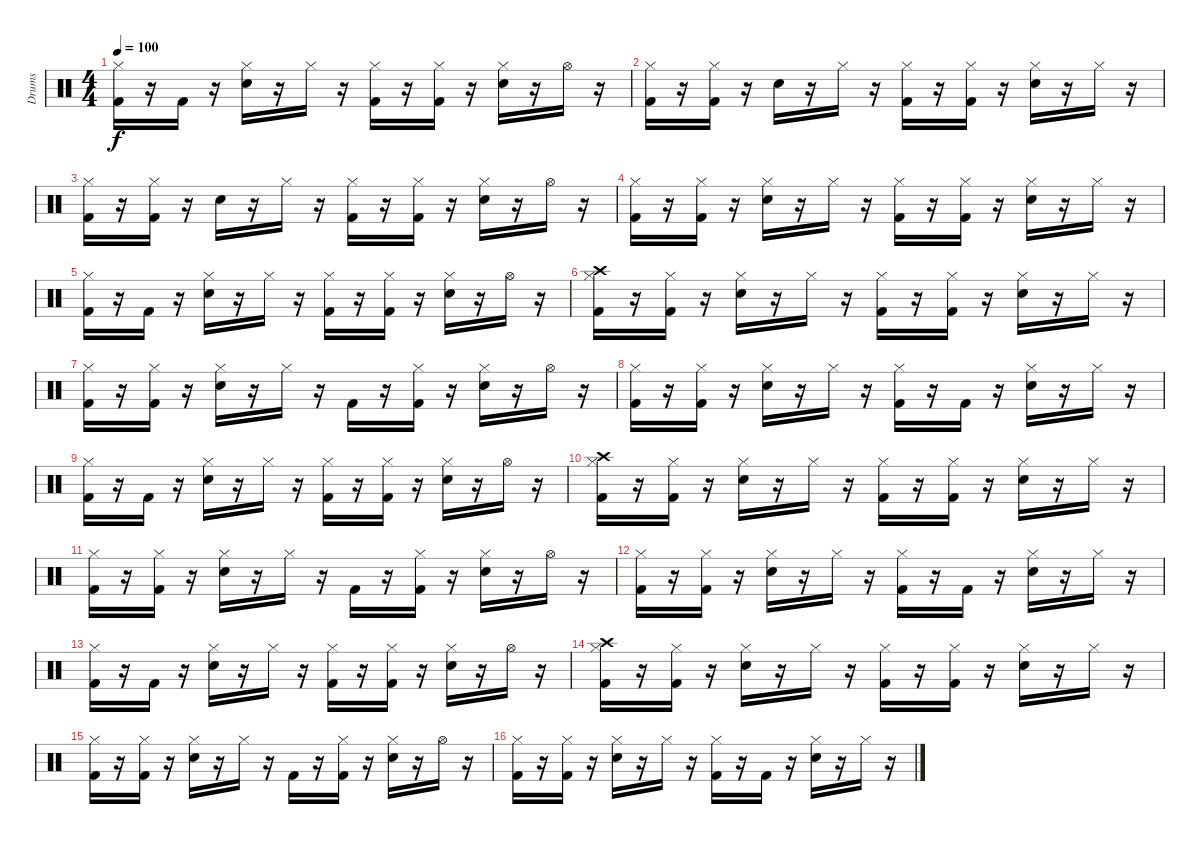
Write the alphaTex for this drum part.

\track ("Drums" "Drums") {instrument percussion}
\staff {score}
\articulation defaults
\ts (4 4)
\tempo 100
\clef neutral
\ks c
("Kick (hit) 2" "Hi-Hat (closed)").16{dy f} r.16 "Kick (hit) 2".16 r.16 ("Snare (hit) 2" "Hi-Hat (closed)").16 r.16 "Hi-Hat (closed)".16 r.16 ("Kick (hit) 2" "Hi-Hat (closed)").16 r.16 ("Kick (hit) 2" "Hi-Hat (closed)").16 r.16 ("Snare (hit) 2" "Hi-Hat (closed)").16 r.16 "Hi-Hat (open)".16 r.16 |
("Kick (hit) 2" "Hi-Hat (closed)").16 r.16 ("Kick (hit) 2" "Hi-Hat (closed)").16 r.16 "Snare (hit) 2".16 r.16 "Hi-Hat (closed)".16 r.16 ("Kick (hit) 2" "Hi-Hat (closed)").16 r.16 ("Kick (hit) 2" "Hi-Hat (closed)").16 r.16 ("Snare (hit) 2" "Hi-Hat (closed)").16 r.16 "Hi-Hat (closed)".16 r.16 |
("Kick (hit) 2" "Hi-Hat (closed)").16 r.16 ("Kick (hit) 2" "Hi-Hat (closed)").16 r.16 "Snare (hit) 2".16 r.16 "Hi-Hat (closed)".16 r.16 ("Kick (hit) 2" "Hi-Hat (closed)").16 r.16 ("Kick (hit) 2" "Hi-Hat (closed)").16 r.16 ("Snare (hit) 2" "Hi-Hat (closed)").16 r.16 "Hi-Hat (open)".16 r.16 |
("Kick (hit) 2" "Hi-Hat (closed)").16 r.16 ("Kick (hit) 2" "Hi-Hat (closed)").16 r.16 ("Snare (hit) 2" "Hi-Hat (closed)").16 r.16 "Hi-Hat (closed)".16 r.16 ("Kick (hit) 2" "Hi-Hat (closed)").16 r.16 ("Kick (hit) 2" "Hi-Hat (closed)").16 r.16 ("Snare (hit) 2" "Hi-Hat (closed)").16 r.16 "Hi-Hat (closed)".16 r.16 |
("Kick (hit) 2" "Hi-Hat (closed)").16 r.16 "Kick (hit) 2".16 r.16 ("Snare (hit) 2" "Hi-Hat (closed)").16 r.16 "Hi-Hat (closed)".16 r.16 ("Kick (hit) 2" "Hi-Hat (closed)").16 r.16 ("Kick (hit) 2" "Hi-Hat (closed)").16 r.16 ("Snare (hit) 2" "Hi-Hat (closed)").16 r.16 "Hi-Hat (open)".16 r.16 |
("Kick (hit) 2" "Hi-Hat (closed)" "Crash high (hit)").16 r.16 ("Kick (hit) 2" "Hi-Hat (closed)").16 r.16 ("Snare (hit) 2" "Hi-Hat (closed)").16 r.16 "Hi-Hat (closed)".16 r.16 ("Kick (hit) 2" "Hi-Hat (closed)").16 r.16 ("Kick (hit) 2" "Hi-Hat (closed)").16 r.16 ("Snare (hit) 2" "Hi-Hat (closed)").16 r.16 "Hi-Hat (closed)".16 r.16 |
("Kick (hit) 2" "Hi-Hat (closed)").16 r.16 ("Kick (hit) 2" "Hi-Hat (closed)").16 r.16 ("Snare (hit) 2" "Hi-Hat (closed)").16 r.16 "Hi-Hat (closed)".16 r.16 "Kick (hit) 2".16 r.16 ("Kick (hit) 2" "Hi-Hat (closed)").16 r.16 ("Snare (hit) 2" "Hi-Hat (closed)").16 r.16 "Hi-Hat (open)".16 r.16 |
("Kick (hit) 2" "Hi-Hat (closed)").16 r.16 ("Kick (hit) 2" "Hi-Hat (closed)").16 r.16 ("Snare (hit) 2" "Hi-Hat (closed)").16 r.16 "Hi-Hat (closed)".16 r.16 ("Kick (hit) 2" "Hi-Hat (closed)").16 r.16 "Kick (hit) 2".16 r.16 ("Snare (hit) 2" "Hi-Hat (closed)").16 r.16 "Hi-Hat (closed)".16 r.16 |
("Kick (hit) 2" "Hi-Hat (closed)").16 r.16 "Kick (hit) 2".16 r.16 ("Snare (hit) 2" "Hi-Hat (closed)").16 r.16 "Hi-Hat (closed)".16 r.16 ("Kick (hit) 2" "Hi-Hat (closed)").16 r.16 ("Kick (hit) 2" "Hi-Hat (closed)").16 r.16 ("Snare (hit) 2" "Hi-Hat (closed)").16 r.16 "Hi-Hat (open)".16 r.16 |
("Kick (hit) 2" "Hi-Hat (closed)" "Crash high (hit)").16 r.16 ("Kick (hit) 2" "Hi-Hat (closed)").16 r.16 ("Snare (hit) 2" "Hi-Hat (closed)").16 r.16 "Hi-Hat (closed)".16 r.16 ("Kick (hit) 2" "Hi-Hat (closed)").16 r.16 ("Kick (hit) 2" "Hi-Hat (closed)").16 r.16 ("Snare (hit) 2" "Hi-Hat (closed)").16 r.16 "Hi-Hat (closed)".16 r.16 |
("Kick (hit) 2" "Hi-Hat (closed)").16 r.16 ("Kick (hit) 2" "Hi-Hat (closed)").16 r.16 ("Snare (hit) 2" "Hi-Hat (closed)").16 r.16 "Hi-Hat (closed)".16 r.16 "Kick (hit) 2".16 r.16 ("Kick (hit) 2" "Hi-Hat (closed)").16 r.16 ("Snare (hit) 2" "Hi-Hat (closed)").16 r.16 "Hi-Hat (open)".16 r.16 |
("Kick (hit) 2" "Hi-Hat (closed)").16 r.16 ("Kick (hit) 2" "Hi-Hat (closed)").16 r.16 ("Snare (hit) 2" "Hi-Hat (closed)").16 r.16 "Hi-Hat (closed)".16 r.16 ("Kick (hit) 2" "Hi-Hat (closed)").16 r.16 "Kick (hit) 2".16 r.16 ("Snare (hit) 2" "Hi-Hat (closed)").16 r.16 "Hi-Hat (closed)".16 r.16 |
("Kick (hit) 2" "Hi-Hat (closed)").16 r.16 "Kick (hit) 2".16 r.16 ("Snare (hit) 2" "Hi-Hat (closed)").16 r.16 "Hi-Hat (closed)".16 r.16 ("Kick (hit) 2" "Hi-Hat (closed)").16 r.16 ("Kick (hit) 2" "Hi-Hat (closed)").16 r.16 ("Snare (hit) 2" "Hi-Hat (closed)").16 r.16 "Hi-Hat (open)".16 r.16 |
("Kick (hit) 2" "Hi-Hat (closed)" "Crash high (hit)").16 r.16 ("Kick (hit) 2" "Hi-Hat (closed)").16 r.16 ("Snare (hit) 2" "Hi-Hat (closed)").16 r.16 "Hi-Hat (closed)".16 r.16 ("Kick (hit) 2" "Hi-Hat (closed)").16 r.16 ("Kick (hit) 2" "Hi-Hat (closed)").16 r.16 ("Snare (hit) 2" "Hi-Hat (closed)").16 r.16 "Hi-Hat (closed)".16 r.16 |
("Kick (hit) 2" "Hi-Hat (closed)").16 r.16 ("Kick (hit) 2" "Hi-Hat (closed)").16 r.16 ("Snare (hit) 2" "Hi-Hat (closed)").16 r.16 "Hi-Hat (closed)".16 r.16 "Kick (hit) 2".16 r.16 ("Kick (hit) 2" "Hi-Hat (closed)").16 r.16 ("Snare (hit) 2" "Hi-Hat (closed)").16 r.16 "Hi-Hat (open)".16 r.16 |
("Kick (hit) 2" "Hi-Hat (closed)").16 r.16 ("Kick (hit) 2" "Hi-Hat (closed)").16 r.16 ("Snare (hit) 2" "Hi-Hat (closed)").16 r.16 "Hi-Hat (closed)".16 r.16 ("Kick (hit) 2" "Hi-Hat (closed)").16 r.16 "Kick (hit) 2".16 r.16 ("Snare (hit) 2" "Hi-Hat (closed)").16 r.16 "Hi-Hat (closed)".16 r.16
